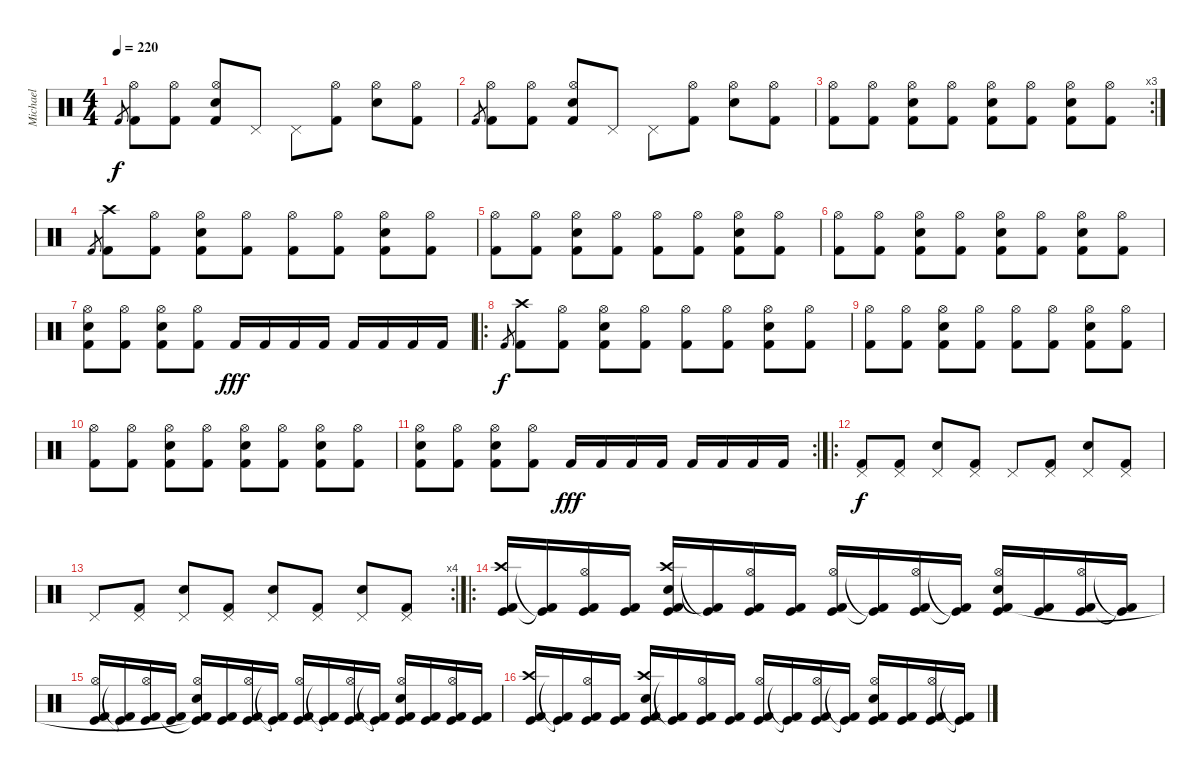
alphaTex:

\track ("Michael" "Michael") {instrument percussion}
\staff {score}
\articulation defaults
\ts (4 4)
\tempo 220
\clef neutral
\ks c "Kick (hit) 2".8{gr dy f}
("Hi-Hat (open)" "Kick (hit) 2").8 ("Hi-Hat (open)" "Kick (hit) 2").8 ("Hi-Hat (open)" "Electric Snare (hit)" "Kick (hit) 2").8 "Pedal Hi-Hat (hit)".8 "Pedal Hi-Hat (hit)".8 ("Hi-Hat (open)" "Kick (hit) 2").8 ("Hi-Hat (open)" "Electric Snare (hit)").8 ("Hi-Hat (open)" "Kick (hit) 2").8 |
"Kick (hit) 2".8{gr} ("Hi-Hat (open)" "Kick (hit) 2").8 ("Hi-Hat (open)" "Kick (hit) 2").8 ("Hi-Hat (open)" "Electric Snare (hit)" "Kick (hit) 2").8 "Pedal Hi-Hat (hit)".8 "Pedal Hi-Hat (hit)".8 ("Hi-Hat (open)" "Kick (hit) 2").8 ("Hi-Hat (open)" "Electric Snare (hit)").8 ("Hi-Hat (open)" "Kick (hit) 2").8 |
\rc 3
("Hi-Hat (open)" "Kick (hit) 2").8 ("Hi-Hat (open)" "Kick (hit) 2").8 ("Hi-Hat (open)" "Electric Snare (hit)" "Kick (hit) 2").8 ("Hi-Hat (open)" "Kick (hit) 2").8 ("Hi-Hat (open)" "Electric Snare (hit)" "Kick (hit) 2").8 ("Hi-Hat (open)" "Kick (hit) 2").8 ("Hi-Hat (open)" "Electric Snare (hit)" "Kick (hit) 2").8 ("Hi-Hat (open)" "Kick (hit) 2").8 |
"Kick (hit) 2".8{gr} ("Crash high (hit)" "Kick (hit) 2").8 ("Hi-Hat (open)" "Kick (hit) 2").8 ("Hi-Hat (open)" "Electric Snare (hit)" "Kick (hit) 2").8 ("Hi-Hat (open)" "Kick (hit) 2").8 ("Hi-Hat (open)" "Kick (hit) 2").8 ("Hi-Hat (open)" "Kick (hit) 2").8 ("Hi-Hat (open)" "Electric Snare (hit)" "Kick (hit) 2").8 ("Hi-Hat (open)" "Kick (hit) 2").8 |
("Hi-Hat (open)" "Kick (hit) 2").8 ("Hi-Hat (open)" "Kick (hit) 2").8 ("Hi-Hat (open)" "Electric Snare (hit)" "Kick (hit) 2").8 ("Hi-Hat (open)" "Kick (hit) 2").8 ("Hi-Hat (open)" "Kick (hit) 2").8 ("Hi-Hat (open)" "Kick (hit) 2").8 ("Hi-Hat (open)" "Electric Snare (hit)" "Kick (hit) 2").8 ("Hi-Hat (open)" "Kick (hit) 2").8 |
("Hi-Hat (open)" "Kick (hit) 2").8 ("Hi-Hat (open)" "Kick (hit) 2").8 ("Hi-Hat (open)" "Electric Snare (hit)" "Kick (hit) 2").8 ("Hi-Hat (open)" "Kick (hit) 2").8 ("Hi-Hat (open)" "Electric Snare (hit)" "Kick (hit) 2").8 ("Hi-Hat (open)" "Kick (hit) 2").8 ("Hi-Hat (open)" "Electric Snare (hit)" "Kick (hit) 2").8 ("Hi-Hat (open)" "Kick (hit) 2").8 |
("Hi-Hat (open)" "Electric Snare (hit)" "Kick (hit) 2").8 ("Hi-Hat (open)" "Kick (hit) 2").8 ("Hi-Hat (open)" "Electric Snare (hit)" "Kick (hit) 2").8 ("Hi-Hat (open)" "Kick (hit) 2").8 "Kick (hit) 2".16{dy fff} "Kick (hit) 2".16 "Kick (hit) 2".16 "Kick (hit) 2".16 "Kick (hit) 2".16 "Kick (hit) 2".16 "Kick (hit) 2".16 "Kick (hit) 2".16 |
\ro "Kick (hit) 2".8{gr dy f}
("Crash high (hit)" "Kick (hit) 2").8 ("Hi-Hat (open)" "Kick (hit) 2").8 ("Hi-Hat (open)" "Electric Snare (hit)" "Kick (hit) 2").8 ("Hi-Hat (open)" "Kick (hit) 2").8 ("Hi-Hat (open)" "Kick (hit) 2").8 ("Hi-Hat (open)" "Kick (hit) 2").8 ("Hi-Hat (open)" "Electric Snare (hit)" "Kick (hit) 2").8 ("Hi-Hat (open)" "Kick (hit) 2").8 |
("Hi-Hat (open)" "Kick (hit) 2").8 ("Hi-Hat (open)" "Kick (hit) 2").8 ("Hi-Hat (open)" "Electric Snare (hit)" "Kick (hit) 2").8 ("Hi-Hat (open)" "Kick (hit) 2").8 ("Hi-Hat (open)" "Kick (hit) 2").8 ("Hi-Hat (open)" "Kick (hit) 2").8 ("Hi-Hat (open)" "Electric Snare (hit)" "Kick (hit) 2").8 ("Hi-Hat (open)" "Kick (hit) 2").8 |
("Hi-Hat (open)" "Kick (hit) 2").8 ("Hi-Hat (open)" "Kick (hit) 2").8 ("Hi-Hat (open)" "Electric Snare (hit)" "Kick (hit) 2").8 ("Hi-Hat (open)" "Kick (hit) 2").8 ("Hi-Hat (open)" "Electric Snare (hit)" "Kick (hit) 2").8 ("Hi-Hat (open)" "Kick (hit) 2").8 ("Hi-Hat (open)" "Electric Snare (hit)" "Kick (hit) 2").8 ("Hi-Hat (open)" "Kick (hit) 2").8 |
\rc 2
("Hi-Hat (open)" "Electric Snare (hit)" "Kick (hit) 2").8 ("Hi-Hat (open)" "Kick (hit) 2").8 ("Hi-Hat (open)" "Electric Snare (hit)" "Kick (hit) 2").8 ("Hi-Hat (open)" "Kick (hit) 2").8 "Kick (hit) 2".16{dy fff} "Kick (hit) 2".16 "Kick (hit) 2".16 "Kick (hit) 2".16 "Kick (hit) 2".16 "Kick (hit) 2".16 "Kick (hit) 2".16 "Kick (hit) 2".16 |
\ro
("Kick (hit) 2" "Pedal Hi-Hat (hit)").8{dy f} ("Kick (hit) 2" "Pedal Hi-Hat (hit)").8 ("Electric Snare (hit)" "Pedal Hi-Hat (hit)").8 ("Kick (hit) 2" "Pedal Hi-Hat (hit)").8 "Pedal Hi-Hat (hit)".8 ("Kick (hit) 2" "Pedal Hi-Hat (hit)").8 ("Electric Snare (hit)" "Pedal Hi-Hat (hit)").8 ("Kick (hit) 2" "Pedal Hi-Hat (hit)").8 |
\rc 4 "Pedal Hi-Hat (hit)".8
("Kick (hit) 2" "Pedal Hi-Hat (hit)").8 ("Electric Snare (hit)" "Pedal Hi-Hat (hit)").8 ("Kick (hit) 2" "Pedal Hi-Hat (hit)").8 ("Electric Snare (hit)" "Pedal Hi-Hat (hit)").8 ("Kick (hit) 2" "Pedal Hi-Hat (hit)").8 ("Electric Snare (hit)" "Pedal Hi-Hat (hit)").8 ("Kick (hit) 2" "Pedal Hi-Hat (hit)").8 |
\ro
("Crash high (hit)" "Kick (hit)" "Kick (hit) 2").16 ("Kick (hit)"{t} "Kick (hit) 2"{t}).16 ("Hi-Hat (open)" "Kick (hit)" "Kick (hit) 2").16 ("Kick (hit)" "Kick (hit) 2").16 ("Crash high (hit)" "Electric Snare (hit)" "Kick (hit)" "Kick (hit) 2").16 ("Kick (hit)"{t} "Kick (hit) 2"{t}).16 ("Hi-Hat (open)" "Kick (hit)" "Kick (hit) 2").16 ("Kick (hit)" "Kick (hit) 2").16 ("Hi-Hat (open)" "Kick (hit)" "Kick (hit) 2").16 ("Kick (hit)"{t} "Kick (hit) 2"{t}).16 ("Hi-Hat (open)" "Kick (hit)" "Kick (hit) 2").16 ("Kick (hit)"{t} "Kick (hit) 2"{t}).16 ("Hi-Hat (open)" "Electric Snare (hit)" "Kick (hit)" "Kick (hit) 2").16 ("Kick (hit)" "Kick (hit) 2").16 ("Hi-Hat (open)" "Kick (hit)" "Kick (hit) 2").16 ("Kick (hit)"{t} "Kick (hit) 2"{t}).16 |
("Hi-Hat (open)" "Kick (hit)" "Kick (hit) 2").16 ("Kick (hit)"{t} "Kick (hit) 2"{t}).16 ("Hi-Hat (open)" "Kick (hit)" "Kick (hit) 2").16 ("Kick (hit)" "Kick (hit) 2").16 ("Hi-Hat (open)" "Electric Snare (hit)" "Kick (hit)"{t} "Kick (hit) 2"{t}).16 ("Kick (hit)" "Kick (hit) 2").16 ("Hi-Hat (open)" "Kick (hit)" "Kick (hit) 2").16 ("Kick (hit)"{t} "Kick (hit) 2"{t}).16 ("Hi-Hat (open)" "Kick (hit)" "Kick (hit) 2").16 ("Kick (hit)"{t} "Kick (hit) 2"{t}).16 ("Hi-Hat (open)" "Kick (hit)" "Kick (hit) 2").16 ("Kick (hit)"{t} "Kick (hit) 2"{t}).16 ("Hi-Hat (open)" "Electric Snare (hit)" "Kick (hit)" "Kick (hit) 2").16 ("Kick (hit)" "Kick (hit) 2").16 ("Hi-Hat (open)" "Kick (hit)" "Kick (hit) 2").16 ("Kick (hit)" "Kick (hit) 2").16 |
("Crash high (hit)" "Kick (hit)" "Kick (hit) 2").16 ("Kick (hit)"{t} "Kick (hit) 2"{t}).16 ("Hi-Hat (open)" "Kick (hit)" "Kick (hit) 2").16 ("Kick (hit)" "Kick (hit) 2").16 ("Crash high (hit)" "Electric Snare (hit)" "Kick (hit)" "Kick (hit) 2").16 ("Kick (hit)"{t} "Kick (hit) 2"{t}).16 ("Hi-Hat (open)" "Kick (hit)" "Kick (hit) 2").16 ("Kick (hit)" "Kick (hit) 2").16 ("Hi-Hat (open)" "Kick (hit)" "Kick (hit) 2").16 ("Kick (hit)"{t} "Kick (hit) 2"{t}).16 ("Hi-Hat (open)" "Kick (hit)" "Kick (hit) 2").16 ("Kick (hit)"{t} "Kick (hit) 2"{t}).16 ("Hi-Hat (open)" "Electric Snare (hit)" "Kick (hit)" "Kick (hit) 2").16 ("Kick (hit)" "Kick (hit) 2").16 ("Hi-Hat (open)" "Kick (hit)" "Kick (hit) 2").16 ("Kick (hit)"{t} "Kick (hit) 2"{t}).16
